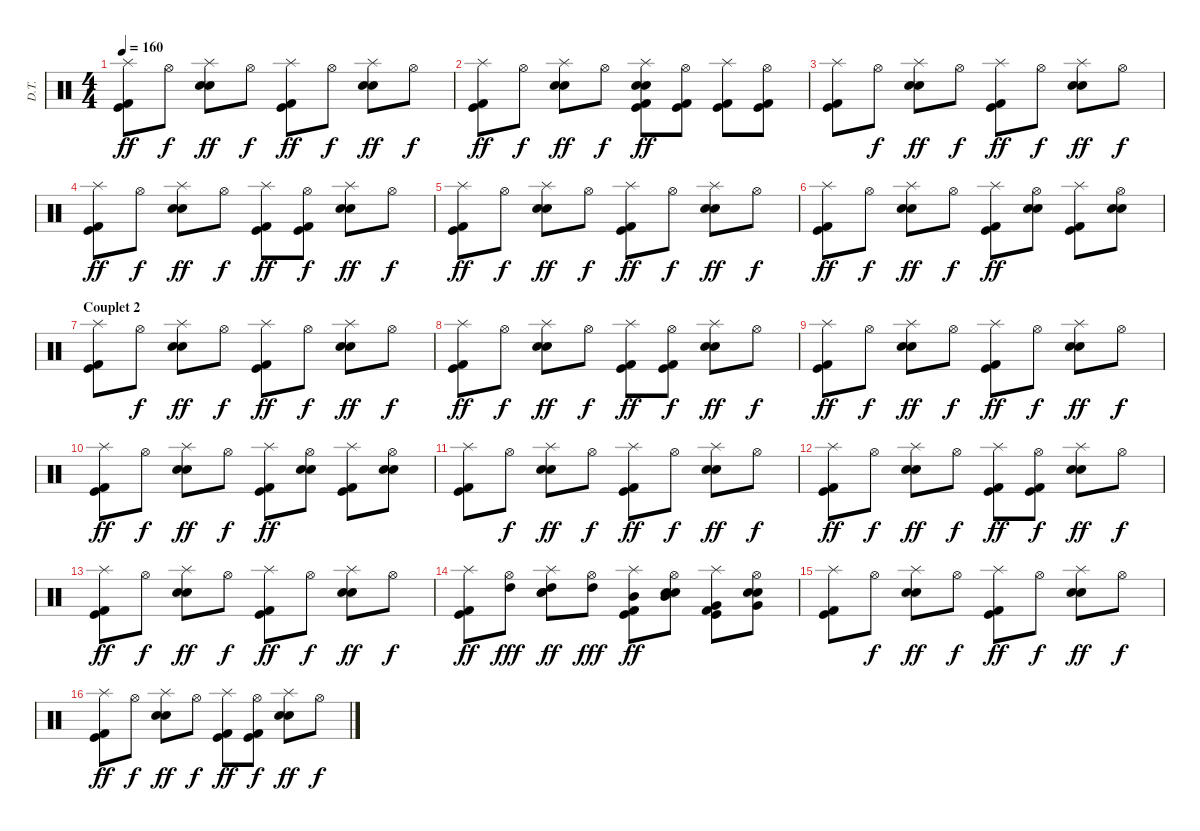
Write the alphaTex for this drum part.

\track ("D.T." "D.T.") {instrument percussion}
\staff {score}
\articulation defaults
\ts (4 4)
\tempo 160
\clef neutral
\ks c
("Splash (hit)" "Kick (hit)" "Kick (hit) 2").8{dy ff} "Hi-Hat (open)".8{dy f} ("Splash (hit)" "Snare (hit) 2" "Electric Snare (hit)").8{dy ff} "Hi-Hat (open)".8{dy f} ("Splash (hit)" "Kick (hit)" "Kick (hit) 2").8{dy ff} "Hi-Hat (open)".8{dy f} ("Splash (hit)" "Snare (hit) 2" "Electric Snare (hit)").8{dy ff} "Hi-Hat (open)".8{dy f} |
("Splash (hit)" "Kick (hit)" "Kick (hit) 2").8{dy ff} "Hi-Hat (open)".8{dy f} ("Splash (hit)" "Snare (hit) 2" "Electric Snare (hit)").8{dy ff} "Hi-Hat (open)".8{dy f} ("Splash (hit)" "Snare (hit) 2" "Electric Snare (hit)" "Kick (hit)" "Kick (hit) 2").8{dy ff} ("Hi-Hat (open)" "Kick (hit)" "Kick (hit) 2").8 ("Splash (hit)" "Kick (hit)" "Kick (hit) 2").8 ("Hi-Hat (open)" "Kick (hit)" "Kick (hit) 2").8 |
("Splash (hit)" "Kick (hit)" "Kick (hit) 2").8 "Hi-Hat (open)".8{dy f} ("Splash (hit)" "Snare (hit) 2" "Electric Snare (hit)").8{dy ff} "Hi-Hat (open)".8{dy f} ("Splash (hit)" "Kick (hit)" "Kick (hit) 2").8{dy ff} "Hi-Hat (open)".8{dy f} ("Splash (hit)" "Snare (hit) 2" "Electric Snare (hit)").8{dy ff} "Hi-Hat (open)".8{dy f} |
("Splash (hit)" "Kick (hit)" "Kick (hit) 2").8{dy ff} "Hi-Hat (open)".8{dy f} ("Splash (hit)" "Snare (hit) 2" "Electric Snare (hit)").8{dy ff} "Hi-Hat (open)".8{dy f} ("Splash (hit)" "Kick (hit)" "Kick (hit) 2").8{dy ff} ("Hi-Hat (open)" "Kick (hit)" "Kick (hit) 2").8{dy f} ("Splash (hit)" "Snare (hit) 2" "Electric Snare (hit)").8{dy ff} "Hi-Hat (open)".8{dy f} |
("Splash (hit)" "Kick (hit)" "Kick (hit) 2").8{dy ff} "Hi-Hat (open)".8{dy f} ("Splash (hit)" "Snare (hit) 2" "Electric Snare (hit)").8{dy ff} "Hi-Hat (open)".8{dy f} ("Splash (hit)" "Kick (hit)" "Kick (hit) 2").8{dy ff} "Hi-Hat (open)".8{dy f} ("Splash (hit)" "Snare (hit) 2" "Electric Snare (hit)").8{dy ff} "Hi-Hat (open)".8{dy f} |
("Splash (hit)" "Kick (hit)" "Kick (hit) 2").8{dy ff} "Hi-Hat (open)".8{dy f} ("Splash (hit)" "Snare (hit) 2" "Electric Snare (hit)").8{dy ff} "Hi-Hat (open)".8{dy f} ("Splash (hit)" "Kick (hit)" "Kick (hit) 2").8{dy ff} ("Hi-Hat (open)" "Snare (hit) 2" "Electric Snare (hit)").8 ("Splash (hit)" "Kick (hit)" "Kick (hit) 2").8 ("Hi-Hat (open)" "Snare (hit) 2" "Electric Snare (hit)").8 |
\section ("" "Couplet 2")
("Splash (hit)" "Kick (hit)" "Kick (hit) 2").8 "Hi-Hat (open)".8{dy f} ("Splash (hit)" "Snare (hit) 2" "Electric Snare (hit)").8{dy ff} "Hi-Hat (open)".8{dy f} ("Splash (hit)" "Kick (hit)" "Kick (hit) 2").8{dy ff} "Hi-Hat (open)".8{dy f} ("Splash (hit)" "Snare (hit) 2" "Electric Snare (hit)").8{dy ff} "Hi-Hat (open)".8{dy f} |
("Splash (hit)" "Kick (hit)" "Kick (hit) 2").8{dy ff} "Hi-Hat (open)".8{dy f} ("Splash (hit)" "Snare (hit) 2" "Electric Snare (hit)").8{dy ff} "Hi-Hat (open)".8{dy f} ("Splash (hit)" "Kick (hit)" "Kick (hit) 2").8{dy ff} ("Hi-Hat (open)" "Kick (hit)" "Kick (hit) 2").8{dy f} ("Splash (hit)" "Snare (hit) 2" "Electric Snare (hit)").8{dy ff} "Hi-Hat (open)".8{dy f} |
("Splash (hit)" "Kick (hit)" "Kick (hit) 2").8{dy ff} "Hi-Hat (open)".8{dy f} ("Splash (hit)" "Snare (hit) 2" "Electric Snare (hit)").8{dy ff} "Hi-Hat (open)".8{dy f} ("Splash (hit)" "Kick (hit)" "Kick (hit) 2").8{dy ff} "Hi-Hat (open)".8{dy f} ("Splash (hit)" "Snare (hit) 2" "Electric Snare (hit)").8{dy ff} "Hi-Hat (open)".8{dy f} |
("Splash (hit)" "Kick (hit)" "Kick (hit) 2").8{dy ff} "Hi-Hat (open)".8{dy f} ("Splash (hit)" "Snare (hit) 2" "Electric Snare (hit)").8{dy ff} "Hi-Hat (open)".8{dy f} ("Splash (hit)" "Kick (hit)" "Kick (hit) 2").8{dy ff} ("Hi-Hat (open)" "Snare (hit) 2" "Electric Snare (hit)").8 ("Splash (hit)" "Kick (hit)" "Kick (hit) 2").8 ("Hi-Hat (open)" "Snare (hit) 2" "Electric Snare (hit)").8 |
("Splash (hit)" "Kick (hit)" "Kick (hit) 2").8 "Hi-Hat (open)".8{dy f} ("Splash (hit)" "Snare (hit) 2" "Electric Snare (hit)").8{dy ff} "Hi-Hat (open)".8{dy f} ("Splash (hit)" "Kick (hit)" "Kick (hit) 2").8{dy ff} "Hi-Hat (open)".8{dy f} ("Splash (hit)" "Snare (hit) 2" "Electric Snare (hit)").8{dy ff} "Hi-Hat (open)".8{dy f} |
("Splash (hit)" "Kick (hit)" "Kick (hit) 2").8{dy ff} "Hi-Hat (open)".8{dy f} ("Splash (hit)" "Snare (hit) 2" "Electric Snare (hit)").8{dy ff} "Hi-Hat (open)".8{dy f} ("Splash (hit)" "Kick (hit)" "Kick (hit) 2").8{dy ff} ("Hi-Hat (open)" "Kick (hit)" "Kick (hit) 2").8{dy f} ("Splash (hit)" "Snare (hit) 2" "Electric Snare (hit)").8{dy ff} "Hi-Hat (open)".8{dy f} |
("Splash (hit)" "Kick (hit)" "Kick (hit) 2").8{dy ff} "Hi-Hat (open)".8{dy f} ("Splash (hit)" "Snare (hit) 2" "Electric Snare (hit)").8{dy ff} "Hi-Hat (open)".8{dy f} ("Splash (hit)" "Kick (hit)" "Kick (hit) 2").8{dy ff} "Hi-Hat (open)".8{dy f} ("Splash (hit)" "Snare (hit) 2" "Electric Snare (hit)").8{dy ff} "Hi-Hat (open)".8{dy f} |
("Splash (hit)" "Kick (hit)" "Kick (hit) 2").8{dy ff} ("Hi-Hat (open)" "High Tom (hit)").8{dy fff} ("Splash (hit)" "High Tom (hit)" "Snare (hit) 2" "Electric Snare (hit)").8{dy ff} ("Hi-Hat (open)" "High Tom (hit)").8{dy fff} ("Splash (hit)" "Mid Tom (hit)" "Kick (hit)" "Kick (hit) 2").8{dy ff} ("Hi-Hat (open)" "Mid Tom (hit)" "Snare (hit) 2" "Electric Snare (hit)").8 ("Splash (hit)" "Very Low Tom (hit)" "Kick (hit)" "Kick (hit) 2").8 ("Hi-Hat (open)" "Very Low Tom (hit)" "Snare (hit) 2" "Electric Snare (hit)").8 |
("Splash (hit)" "Kick (hit)" "Kick (hit) 2").8 "Hi-Hat (open)".8{dy f} ("Splash (hit)" "Snare (hit) 2" "Electric Snare (hit)").8{dy ff} "Hi-Hat (open)".8{dy f} ("Splash (hit)" "Kick (hit)" "Kick (hit) 2").8{dy ff} "Hi-Hat (open)".8{dy f} ("Splash (hit)" "Snare (hit) 2" "Electric Snare (hit)").8{dy ff} "Hi-Hat (open)".8{dy f} |
("Splash (hit)" "Kick (hit)" "Kick (hit) 2").8{dy ff} "Hi-Hat (open)".8{dy f} ("Splash (hit)" "Snare (hit) 2" "Electric Snare (hit)").8{dy ff} "Hi-Hat (open)".8{dy f} ("Splash (hit)" "Kick (hit)" "Kick (hit) 2").8{dy ff} ("Hi-Hat (open)" "Kick (hit)" "Kick (hit) 2").8{dy f} ("Splash (hit)" "Snare (hit) 2" "Electric Snare (hit)").8{dy ff} "Hi-Hat (open)".8{dy f}
